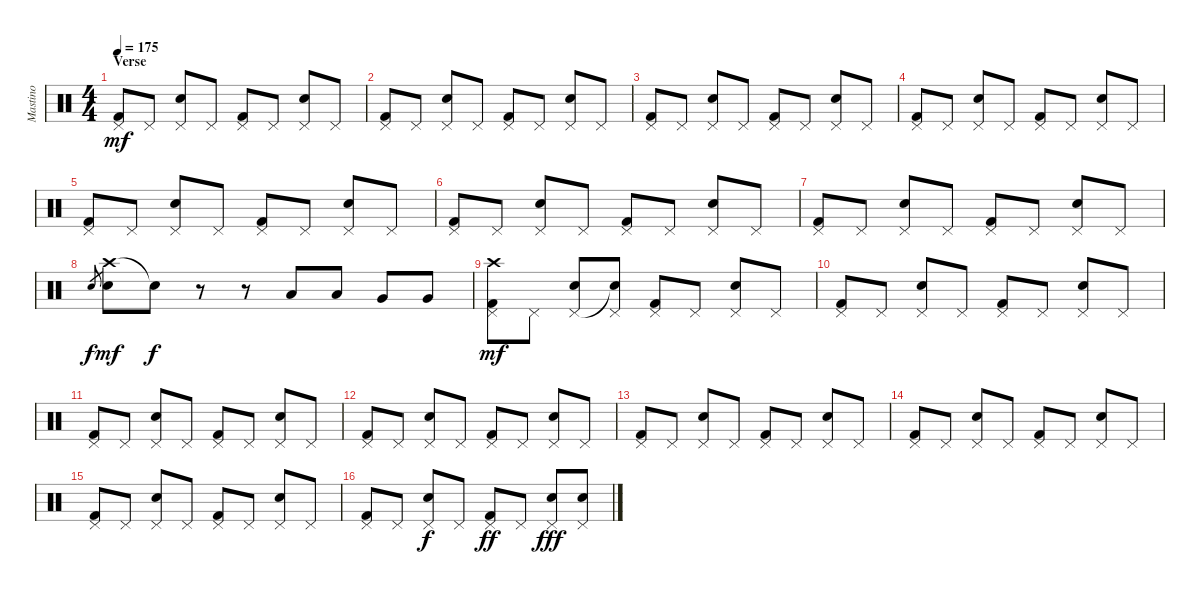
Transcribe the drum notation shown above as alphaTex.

\track ("Mastino" "Mastino") {instrument percussion}
\staff {score}
\articulation defaults
\ts (4 4)
\section ("" "Verse")
\tempo 175
\clef neutral
\ks c
("Pedal Hi-Hat (hit)" "Kick (hit) 2").8{dy mf} "Pedal Hi-Hat (hit)".8 ("Pedal Hi-Hat (hit)" "Electric Snare (hit)").8 "Pedal Hi-Hat (hit)".8 ("Pedal Hi-Hat (hit)" "Kick (hit) 2").8 "Pedal Hi-Hat (hit)".8 ("Pedal Hi-Hat (hit)" "Electric Snare (hit)").8 "Pedal Hi-Hat (hit)".8 |
("Pedal Hi-Hat (hit)" "Kick (hit) 2").8 "Pedal Hi-Hat (hit)".8 ("Pedal Hi-Hat (hit)" "Electric Snare (hit)").8 "Pedal Hi-Hat (hit)".8 ("Pedal Hi-Hat (hit)" "Kick (hit) 2").8 "Pedal Hi-Hat (hit)".8 ("Pedal Hi-Hat (hit)" "Electric Snare (hit)").8 "Pedal Hi-Hat (hit)".8 |
("Pedal Hi-Hat (hit)" "Kick (hit) 2").8 "Pedal Hi-Hat (hit)".8 ("Pedal Hi-Hat (hit)" "Electric Snare (hit)").8 "Pedal Hi-Hat (hit)".8 ("Pedal Hi-Hat (hit)" "Kick (hit) 2").8 "Pedal Hi-Hat (hit)".8 ("Pedal Hi-Hat (hit)" "Electric Snare (hit)").8 "Pedal Hi-Hat (hit)".8 |
("Pedal Hi-Hat (hit)" "Kick (hit) 2").8 "Pedal Hi-Hat (hit)".8 ("Pedal Hi-Hat (hit)" "Electric Snare (hit)").8 "Pedal Hi-Hat (hit)".8 ("Pedal Hi-Hat (hit)" "Kick (hit) 2").8 "Pedal Hi-Hat (hit)".8 ("Pedal Hi-Hat (hit)" "Electric Snare (hit)").8 "Pedal Hi-Hat (hit)".8 |
("Pedal Hi-Hat (hit)" "Kick (hit) 2").8 "Pedal Hi-Hat (hit)".8 ("Pedal Hi-Hat (hit)" "Electric Snare (hit)").8 "Pedal Hi-Hat (hit)".8 ("Pedal Hi-Hat (hit)" "Kick (hit) 2").8 "Pedal Hi-Hat (hit)".8 ("Pedal Hi-Hat (hit)" "Electric Snare (hit)").8 "Pedal Hi-Hat (hit)".8 |
("Pedal Hi-Hat (hit)" "Kick (hit) 2").8 "Pedal Hi-Hat (hit)".8 ("Pedal Hi-Hat (hit)" "Electric Snare (hit)").8 "Pedal Hi-Hat (hit)".8 ("Pedal Hi-Hat (hit)" "Kick (hit) 2").8 "Pedal Hi-Hat (hit)".8 ("Pedal Hi-Hat (hit)" "Electric Snare (hit)").8 "Pedal Hi-Hat (hit)".8 |
("Pedal Hi-Hat (hit)" "Kick (hit) 2").8 "Pedal Hi-Hat (hit)".8 ("Pedal Hi-Hat (hit)" "Electric Snare (hit)").8 "Pedal Hi-Hat (hit)".8 ("Pedal Hi-Hat (hit)" "Kick (hit) 2").8 "Pedal Hi-Hat (hit)".8 ("Pedal Hi-Hat (hit)" "Electric Snare (hit)").8 "Pedal Hi-Hat (hit)".8 |
"Electric Snare (hit)".8{gr dy f} ("Crash high (hit)" "Electric Snare (hit)").8{dy mf} "Snare (hit)"{t}.8{dy f} r.8 r.8 "Low Tom (hit)".8 "Low Tom (hit)".8 "Very Low Tom (hit)".8 "Very Low Tom (hit)".8 |
("Crash high (hit)" "Pedal Hi-Hat (hit)" "Kick (hit) 2").8{dy mf} "Pedal Hi-Hat (hit)".8 ("Pedal Hi-Hat (hit)" "Electric Snare (hit)").8 ("Snare (hit)"{t} "Pedal Hi-Hat (hit)").8 ("Pedal Hi-Hat (hit)" "Kick (hit) 2").8 "Pedal Hi-Hat (hit)".8 ("Pedal Hi-Hat (hit)" "Electric Snare (hit)").8 "Pedal Hi-Hat (hit)".8 |
("Pedal Hi-Hat (hit)" "Kick (hit) 2").8 "Pedal Hi-Hat (hit)".8 ("Pedal Hi-Hat (hit)" "Electric Snare (hit)").8 "Pedal Hi-Hat (hit)".8 ("Pedal Hi-Hat (hit)" "Kick (hit) 2").8 "Pedal Hi-Hat (hit)".8 ("Pedal Hi-Hat (hit)" "Electric Snare (hit)").8 "Pedal Hi-Hat (hit)".8 |
("Pedal Hi-Hat (hit)" "Kick (hit) 2").8 "Pedal Hi-Hat (hit)".8 ("Pedal Hi-Hat (hit)" "Electric Snare (hit)").8 "Pedal Hi-Hat (hit)".8 ("Pedal Hi-Hat (hit)" "Kick (hit) 2").8 "Pedal Hi-Hat (hit)".8 ("Pedal Hi-Hat (hit)" "Electric Snare (hit)").8 "Pedal Hi-Hat (hit)".8 |
("Pedal Hi-Hat (hit)" "Kick (hit) 2").8 "Pedal Hi-Hat (hit)".8 ("Pedal Hi-Hat (hit)" "Electric Snare (hit)").8 "Pedal Hi-Hat (hit)".8 ("Pedal Hi-Hat (hit)" "Kick (hit) 2").8 "Pedal Hi-Hat (hit)".8 ("Pedal Hi-Hat (hit)" "Electric Snare (hit)").8 "Pedal Hi-Hat (hit)".8 |
("Pedal Hi-Hat (hit)" "Kick (hit) 2").8 "Pedal Hi-Hat (hit)".8 ("Pedal Hi-Hat (hit)" "Electric Snare (hit)").8 "Pedal Hi-Hat (hit)".8 ("Pedal Hi-Hat (hit)" "Kick (hit) 2").8 "Pedal Hi-Hat (hit)".8 ("Pedal Hi-Hat (hit)" "Electric Snare (hit)").8 "Pedal Hi-Hat (hit)".8 |
("Pedal Hi-Hat (hit)" "Kick (hit) 2").8 "Pedal Hi-Hat (hit)".8 ("Pedal Hi-Hat (hit)" "Electric Snare (hit)").8 "Pedal Hi-Hat (hit)".8 ("Pedal Hi-Hat (hit)" "Kick (hit) 2").8 "Pedal Hi-Hat (hit)".8 ("Pedal Hi-Hat (hit)" "Electric Snare (hit)").8 "Pedal Hi-Hat (hit)".8 |
("Pedal Hi-Hat (hit)" "Kick (hit) 2").8 "Pedal Hi-Hat (hit)".8 ("Pedal Hi-Hat (hit)" "Electric Snare (hit)").8 "Pedal Hi-Hat (hit)".8 ("Pedal Hi-Hat (hit)" "Kick (hit) 2").8 "Pedal Hi-Hat (hit)".8 ("Pedal Hi-Hat (hit)" "Electric Snare (hit)").8 "Pedal Hi-Hat (hit)".8 |
("Pedal Hi-Hat (hit)" "Kick (hit) 2").8 "Pedal Hi-Hat (hit)".8 ("Pedal Hi-Hat (hit)" "Electric Snare (hit)").8{dy f} "Pedal Hi-Hat (hit)".8 ("Pedal Hi-Hat (hit)" "Kick (hit) 2").8{dy ff} "Pedal Hi-Hat (hit)".8 ("Pedal Hi-Hat (hit)" "Electric Snare (hit)").8{dy fff} ("Pedal Hi-Hat (hit)" "Electric Snare (hit)").8
